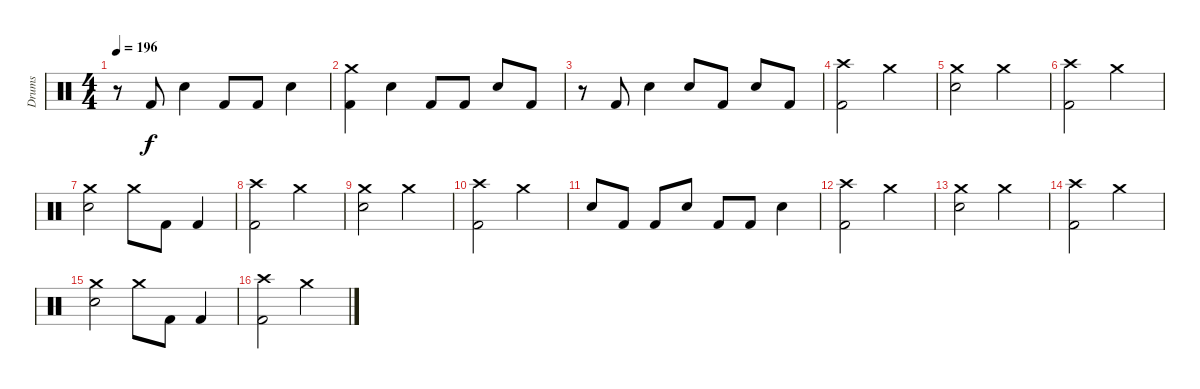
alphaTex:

\track ("Drums" "Drums") {instrument percussion}
\staff
\articulation defaults
\ts (4 4)
\tempo 196
\clef neutral
\ks c
r.8{dy f} "Kick (hit) 2".8 "Electric Snare (hit)".4 "Kick (hit) 2".8 "Kick (hit) 2".8 "Electric Snare (hit)".4 |
("Crash medium (hit)" "Kick (hit) 2").4 "Electric Snare (hit)".4 "Kick (hit) 2".8 "Kick (hit) 2".8 "Electric Snare (hit)".8 "Kick (hit) 2".8 |
r.8 "Kick (hit) 2".8 "Electric Snare (hit)".4 "Electric Snare (hit)".8 "Kick (hit) 2".8 "Electric Snare (hit)".8 "Kick (hit) 2".8 |
("Crash high (hit)" "Kick (hit) 2").2 "Crash medium (hit)".2 |
("Crash medium (hit)" "Electric Snare (hit)").2 "Crash medium (hit)".2 |
("Crash high (hit)" "Kick (hit) 2").2 "Crash medium (hit)".2 |
("Crash medium (hit)" "Electric Snare (hit)").2 "Crash medium (hit)".8 "Kick (hit) 2".8 "Kick (hit) 2".4 |
("Crash high (hit)" "Kick (hit) 2").2 "Crash medium (hit)".2 |
("Crash medium (hit)" "Electric Snare (hit)").2 "Crash medium (hit)".2 |
("Crash high (hit)" "Kick (hit) 2").2 "Crash medium (hit)".2 |
"Electric Snare (hit)".8 "Kick (hit) 2".8 "Kick (hit) 2".8 "Electric Snare (hit)".8 "Kick (hit) 2".8 "Kick (hit) 2".8 "Electric Snare (hit)".4 |
("Crash high (hit)" "Kick (hit) 2").2 "Crash medium (hit)".2 |
("Crash medium (hit)" "Electric Snare (hit)").2 "Crash medium (hit)".2 |
("Crash high (hit)" "Kick (hit) 2").2 "Crash medium (hit)".2 |
("Crash medium (hit)" "Electric Snare (hit)").2 "Crash medium (hit)".8 "Kick (hit) 2".8 "Kick (hit) 2".4 |
("Crash high (hit)" "Kick (hit) 2").2 "Crash medium (hit)".2
